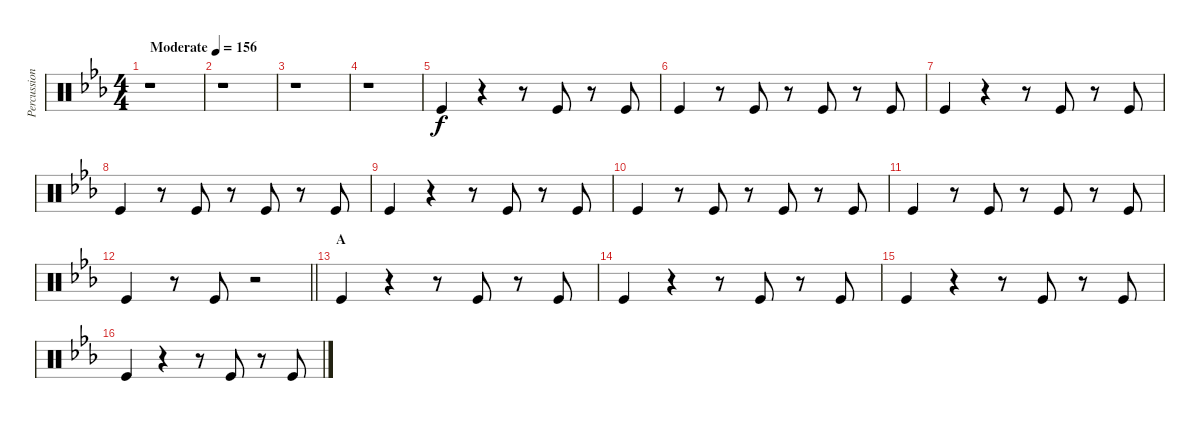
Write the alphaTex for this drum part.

\track ("Percussion foot" "Percussion") {instrument percussion}
\staff {score}
\articulation defaults
\ts (4 4)
\tempo (156 "Moderate")
\clef neutral
\ks eb
r.1{dy f} |
r.1 |
r.1 |
r.1 |
"Kick (hit)".4 r.4 r.8 "Kick (hit)".8 r.8 "Kick (hit)".8 |
"Kick (hit)".4 r.8 "Kick (hit)".8 r.8 "Kick (hit)".8 r.8 "Kick (hit)".8 |
"Kick (hit)".4 r.4 r.8 "Kick (hit)".8 r.8 "Kick (hit)".8 |
"Kick (hit)".4 r.8 "Kick (hit)".8 r.8 "Kick (hit)".8 r.8 "Kick (hit)".8 |
"Kick (hit)".4 r.4 r.8 "Kick (hit)".8 r.8 "Kick (hit)".8 |
"Kick (hit)".4 r.8 "Kick (hit)".8 r.8 "Kick (hit)".8 r.8 "Kick (hit)".8 |
"Kick (hit)".4 r.8 "Kick (hit)".8 r.8 "Kick (hit)".8 r.8 "Kick (hit)".8 |
\barLineRight lightlight "Kick (hit)".4
r.8 "Kick (hit)".8 r.2 |
\section ("" "A")
"Kick (hit)".4 r.4 r.8 "Kick (hit)".8 r.8 "Kick (hit)".8 |
"Kick (hit)".4 r.4 r.8 "Kick (hit)".8 r.8 "Kick (hit)".8 |
"Kick (hit)".4 r.4 r.8 "Kick (hit)".8 r.8 "Kick (hit)".8 |
"Kick (hit)".4 r.4 r.8 "Kick (hit)".8 r.8 "Kick (hit)".8
